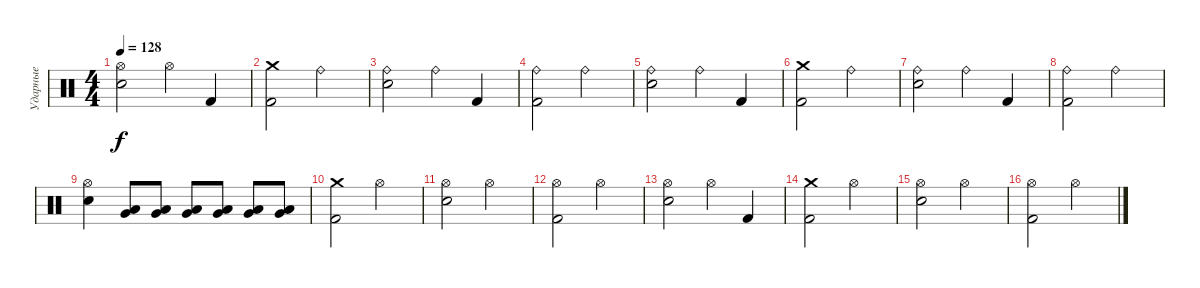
\track ("Ударные" "Ударные") {instrument percussion}
\staff {score}
\articulation defaults
\ts (4 4)
\tempo 128
\clef neutral
\ks c
("Hi-Hat (open)" "Snare (hit) 2").2{dy f} "Hi-Hat (open)".4 "Kick (hit) 2".4 |
("Crash medium (hit)" "Kick (hit) 2").2 "Ride (bell)".2 |
("Ride (bell)" "Snare (hit) 2").2 "Ride (bell)".4 "Kick (hit) 2".4 |
("Ride (bell)" "Kick (hit) 2").2 "Ride (bell)".2 |
("Ride (bell)" "Snare (hit) 2").2 "Ride (bell)".4 "Kick (hit) 2".4 |
("Crash medium (hit)" "Kick (hit) 2").2 "Ride (bell)".2 |
("Ride (bell)" "Snare (hit) 2").2 "Ride (bell)".4 "Kick (hit) 2".4 |
("Ride (bell)" "Kick (hit) 2").2 "Ride (bell)".2 |
("Hi-Hat (open)" "Snare (hit) 2").4 ("Very Low Tom (hit)" "Low Tom (hit)").8{volume 8} ("Very Low Tom (hit)" "Low Tom (hit)").8{volume 13} ("Very Low Tom (hit)" "Low Tom (hit)").8 ("Very Low Tom (hit)" "Low Tom (hit)").8 ("Very Low Tom (hit)" "Low Tom (hit)").8 ("Very Low Tom (hit)" "Low Tom (hit)").8 |
("Crash medium (hit)" "Kick (hit) 2").2 "Hi-Hat (open)".2 |
("Hi-Hat (open)" "Snare (hit) 2").2 "Hi-Hat (open)".2 |
("Hi-Hat (open)" "Kick (hit) 2").2 "Hi-Hat (open)".2 |
("Hi-Hat (open)" "Snare (hit) 2").2 "Hi-Hat (open)".4 "Kick (hit) 2".4 |
("Crash medium (hit)" "Kick (hit) 2").2 "Hi-Hat (open)".2 |
("Hi-Hat (open)" "Snare (hit) 2").2 "Hi-Hat (open)".2 |
("Hi-Hat (open)" "Kick (hit) 2").2 "Hi-Hat (open)".2
